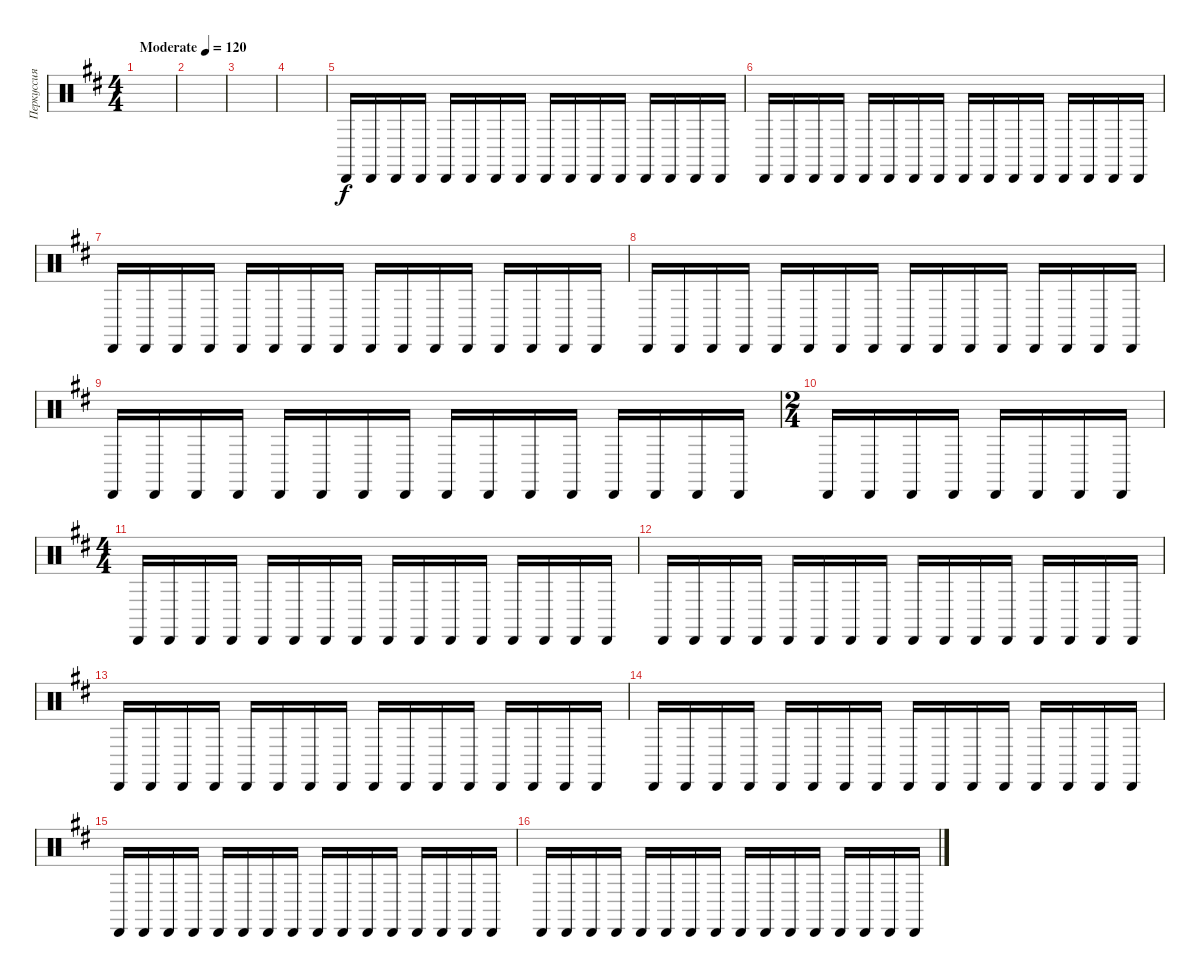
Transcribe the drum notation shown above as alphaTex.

\track ("Перкуссия" "Перкуссия") {instrument percussion}
\staff {score}
\articulation defaults
\ts (4 4)
\tempo (120 "Moderate")
\clef neutral
\ks bminor
|
|
|
|
\ks d "Cabasa (hit)".16 "Cabasa (hit)".16 "Cabasa (hit)".16 "Cabasa (hit)".16 "Cabasa (hit)".16 "Cabasa (hit)".16 "Cabasa (hit)".16 "Cabasa (hit)".16 "Cabasa (hit)".16 "Cabasa (hit)".16 "Cabasa (hit)".16 "Cabasa (hit)".16 "Cabasa (hit)".16 "Cabasa (hit)".16 "Cabasa (hit)".16 "Cabasa (hit)".16
|
"Cabasa (hit)".16 "Cabasa (hit)".16 "Cabasa (hit)".16 "Cabasa (hit)".16 "Cabasa (hit)".16 "Cabasa (hit)".16 "Cabasa (hit)".16 "Cabasa (hit)".16 "Cabasa (hit)".16 "Cabasa (hit)".16 "Cabasa (hit)".16 "Cabasa (hit)".16 "Cabasa (hit)".16 "Cabasa (hit)".16 "Cabasa (hit)".16 "Cabasa (hit)".16 |
"Cabasa (hit)".16 "Cabasa (hit)".16 "Cabasa (hit)".16 "Cabasa (hit)".16 "Cabasa (hit)".16 "Cabasa (hit)".16 "Cabasa (hit)".16 "Cabasa (hit)".16 "Cabasa (hit)".16 "Cabasa (hit)".16 "Cabasa (hit)".16 "Cabasa (hit)".16 "Cabasa (hit)".16 "Cabasa (hit)".16 "Cabasa (hit)".16 "Cabasa (hit)".16 |
"Cabasa (hit)".16 "Cabasa (hit)".16 "Cabasa (hit)".16 "Cabasa (hit)".16 "Cabasa (hit)".16 "Cabasa (hit)".16 "Cabasa (hit)".16 "Cabasa (hit)".16 "Cabasa (hit)".16 "Cabasa (hit)".16 "Cabasa (hit)".16 "Cabasa (hit)".16 "Cabasa (hit)".16 "Cabasa (hit)".16 "Cabasa (hit)".16 "Cabasa (hit)".16 |
"Cabasa (hit)".16 "Cabasa (hit)".16 "Cabasa (hit)".16 "Cabasa (hit)".16 "Cabasa (hit)".16 "Cabasa (hit)".16 "Cabasa (hit)".16 "Cabasa (hit)".16 "Cabasa (hit)".16 "Cabasa (hit)".16 "Cabasa (hit)".16 "Cabasa (hit)".16 "Cabasa (hit)".16 "Cabasa (hit)".16 "Cabasa (hit)".16 "Cabasa (hit)".16 |
\ts (2 4)
"Cabasa (hit)".16 "Cabasa (hit)".16 "Cabasa (hit)".16 "Cabasa (hit)".16 "Cabasa (hit)".16 "Cabasa (hit)".16 "Cabasa (hit)".16 "Cabasa (hit)".16 |
\ts (4 4)
"Cabasa (hit)".16 "Cabasa (hit)".16 "Cabasa (hit)".16 "Cabasa (hit)".16 "Cabasa (hit)".16 "Cabasa (hit)".16 "Cabasa (hit)".16 "Cabasa (hit)".16 "Cabasa (hit)".16 "Cabasa (hit)".16 "Cabasa (hit)".16 "Cabasa (hit)".16 "Cabasa (hit)".16 "Cabasa (hit)".16 "Cabasa (hit)".16 "Cabasa (hit)".16 |
"Cabasa (hit)".16 "Cabasa (hit)".16 "Cabasa (hit)".16 "Cabasa (hit)".16 "Cabasa (hit)".16 "Cabasa (hit)".16 "Cabasa (hit)".16 "Cabasa (hit)".16 "Cabasa (hit)".16 "Cabasa (hit)".16 "Cabasa (hit)".16 "Cabasa (hit)".16 "Cabasa (hit)".16 "Cabasa (hit)".16 "Cabasa (hit)".16 "Cabasa (hit)".16 |
"Cabasa (hit)".16 "Cabasa (hit)".16 "Cabasa (hit)".16 "Cabasa (hit)".16 "Cabasa (hit)".16 "Cabasa (hit)".16 "Cabasa (hit)".16 "Cabasa (hit)".16 "Cabasa (hit)".16 "Cabasa (hit)".16 "Cabasa (hit)".16 "Cabasa (hit)".16 "Cabasa (hit)".16 "Cabasa (hit)".16 "Cabasa (hit)".16 "Cabasa (hit)".16 |
"Cabasa (hit)".16 "Cabasa (hit)".16 "Cabasa (hit)".16 "Cabasa (hit)".16 "Cabasa (hit)".16 "Cabasa (hit)".16 "Cabasa (hit)".16 "Cabasa (hit)".16 "Cabasa (hit)".16 "Cabasa (hit)".16 "Cabasa (hit)".16 "Cabasa (hit)".16 "Cabasa (hit)".16 "Cabasa (hit)".16 "Cabasa (hit)".16 "Cabasa (hit)".16 |
"Cabasa (hit)".16 "Cabasa (hit)".16 "Cabasa (hit)".16 "Cabasa (hit)".16 "Cabasa (hit)".16 "Cabasa (hit)".16 "Cabasa (hit)".16 "Cabasa (hit)".16 "Cabasa (hit)".16 "Cabasa (hit)".16 "Cabasa (hit)".16 "Cabasa (hit)".16 "Cabasa (hit)".16 "Cabasa (hit)".16 "Cabasa (hit)".16 "Cabasa (hit)".16 |
\ks bminor "Cabasa (hit)".16 "Cabasa (hit)".16 "Cabasa (hit)".16 "Cabasa (hit)".16 "Cabasa (hit)".16 "Cabasa (hit)".16 "Cabasa (hit)".16 "Cabasa (hit)".16 "Cabasa (hit)".16 "Cabasa (hit)".16 "Cabasa (hit)".16 "Cabasa (hit)".16 "Cabasa (hit)".16 "Cabasa (hit)".16 "Cabasa (hit)".16 "Cabasa (hit)".16
